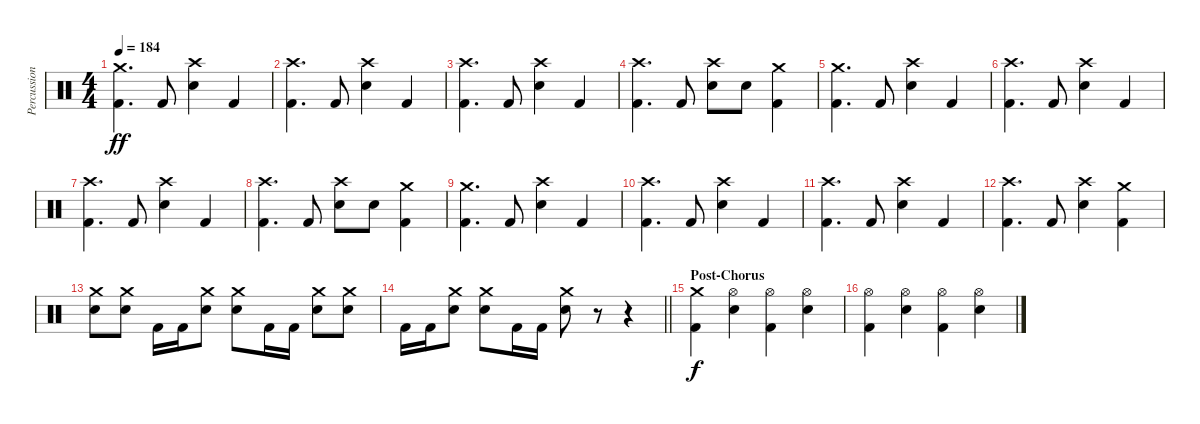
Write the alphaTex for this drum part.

\track ("Percussion" "Percussion") {instrument percussion}
\staff {score}
\articulation defaults
\ts (4 4)
\tempo 184
\clef neutral
\ks c
("Crash medium (hit)" "Kick (hit) 2").4{d dy ff} "Kick (hit) 2".8 ("Crash high (hit)" "Electric Snare (hit)").4 "Kick (hit) 2".4 |
("Crash high (hit)" "Kick (hit) 2").4{d} "Kick (hit) 2".8 ("Crash high (hit)" "Electric Snare (hit)").4 "Kick (hit) 2".4 |
("Crash high (hit)" "Kick (hit) 2").4{d} "Kick (hit) 2".8 ("Crash high (hit)" "Electric Snare (hit)").4 "Kick (hit) 2".4 |
("Crash high (hit)" "Kick (hit) 2").4{d} "Kick (hit) 2".8 ("Crash high (hit)" "Electric Snare (hit)").8 "Electric Snare (hit)".8 ("Crash medium (hit)" "Kick (hit) 2").4 |
("Crash medium (hit)" "Kick (hit) 2").4{d} "Kick (hit) 2".8 ("Crash high (hit)" "Electric Snare (hit)").4 "Kick (hit) 2".4 |
("Crash high (hit)" "Kick (hit) 2").4{d} "Kick (hit) 2".8 ("Crash high (hit)" "Electric Snare (hit)").4 "Kick (hit) 2".4 |
("Crash high (hit)" "Kick (hit) 2").4{d} "Kick (hit) 2".8 ("Crash high (hit)" "Electric Snare (hit)").4 "Kick (hit) 2".4 |
("Crash high (hit)" "Kick (hit) 2").4{d} "Kick (hit) 2".8 ("Crash high (hit)" "Electric Snare (hit)").8 "Electric Snare (hit)".8 ("Crash medium (hit)" "Kick (hit) 2").4 |
("Crash medium (hit)" "Kick (hit) 2").4{d} "Kick (hit) 2".8 ("Crash high (hit)" "Electric Snare (hit)").4 "Kick (hit) 2".4 |
("Crash high (hit)" "Kick (hit) 2").4{d} "Kick (hit) 2".8 ("Crash high (hit)" "Electric Snare (hit)").4 "Kick (hit) 2".4 |
("Crash high (hit)" "Kick (hit) 2").4{d} "Kick (hit) 2".8 ("Crash high (hit)" "Electric Snare (hit)").4 "Kick (hit) 2".4 |
("Crash high (hit)" "Kick (hit) 2").4{d} "Kick (hit) 2".8 ("Crash high (hit)" "Electric Snare (hit)").4 ("Crash medium (hit)" "Kick (hit) 2").4 |
("Crash medium (hit)" "Electric Snare (hit)").8 ("Crash medium (hit)" "Electric Snare (hit)").8 "Kick (hit) 2".16 "Kick (hit) 2".16 ("Crash medium (hit)" "Electric Snare (hit)").8 ("Crash medium (hit)" "Electric Snare (hit)").8 "Kick (hit) 2".16 "Kick (hit) 2".16 ("Crash medium (hit)" "Electric Snare (hit)").8 ("Crash medium (hit)" "Electric Snare (hit)").8 |
\barLineRight lightlight "Kick (hit) 2".16 "Kick (hit) 2".16
("Crash medium (hit)" "Electric Snare (hit)").8 ("Crash medium (hit)" "Electric Snare (hit)").8 "Kick (hit) 2".16 "Kick (hit) 2".16 ("Crash medium (hit)" "Electric Snare (hit)").8 r.8 r.4 |
\section ("" "Post-Chorus")
("Crash medium (hit)" "Kick (hit) 2").4{dy f} ("Hi-Hat (open)" "Electric Snare (hit)").4 ("Hi-Hat (open)" "Kick (hit) 2").4 ("Hi-Hat (open)" "Electric Snare (hit)").4 |
("Hi-Hat (open)" "Kick (hit) 2").4 ("Hi-Hat (open)" "Electric Snare (hit)").4 ("Hi-Hat (open)" "Kick (hit) 2").4 ("Hi-Hat (open)" "Electric Snare (hit)").4
